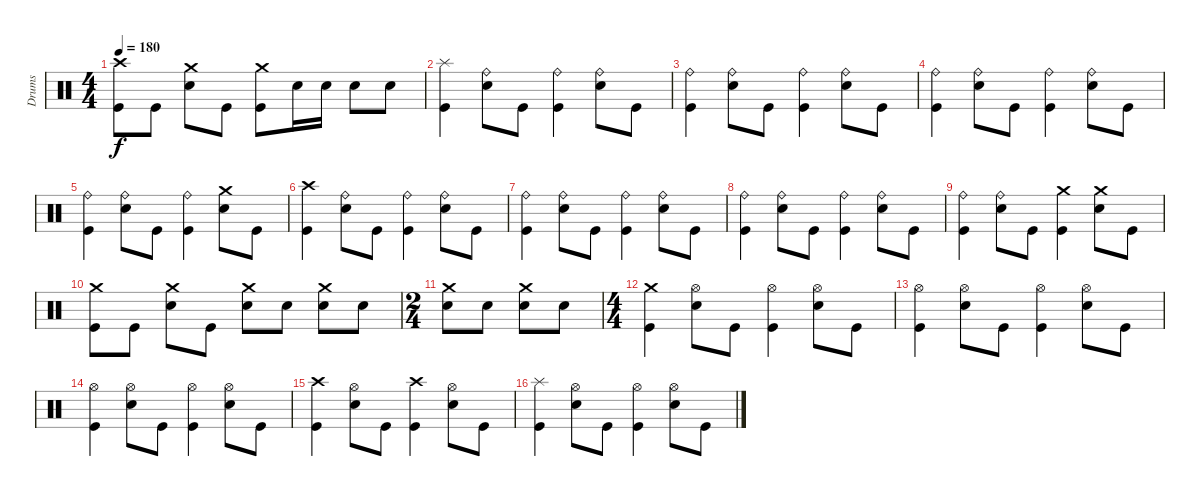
\track ("Drums" "Drums") {instrument percussion}
\staff {score}
\articulation defaults
\ts (4 4)
\tempo 180
\clef neutral
\ks c
("Crash high (hit)" "Kick (hit)").8{dy f} "Kick (hit)".8 ("Crash medium (hit)" "Snare (hit) 2").8 "Kick (hit)".8 ("Crash medium (hit)" "Kick (hit)").8 "Snare (hit) 2".16 "Snare (hit) 2".16 "Snare (hit) 2".8 "Snare (hit) 2".8 |
("Splash (hit)" "Kick (hit)").4 ("Ride (bell)" "Snare (hit) 2").8 "Kick (hit)".8 ("Ride (bell)" "Kick (hit)").4 ("Ride (bell)" "Snare (hit) 2").8 "Kick (hit)".8 |
("Ride (bell)" "Kick (hit)").4 ("Ride (bell)" "Snare (hit) 2").8 "Kick (hit)".8 ("Ride (bell)" "Kick (hit)").4 ("Ride (bell)" "Snare (hit) 2").8 "Kick (hit)".8 |
("Ride (bell)" "Kick (hit)").4 ("Ride (bell)" "Snare (hit) 2").8 "Kick (hit)".8 ("Ride (bell)" "Kick (hit)").4 ("Ride (bell)" "Snare (hit) 2").8 "Kick (hit)".8 |
("Ride (bell)" "Kick (hit)").4 ("Ride (bell)" "Snare (hit) 2").8 "Kick (hit)".8 ("Ride (bell)" "Kick (hit)").4 ("Crash medium (hit)" "Snare (hit) 2").8 "Kick (hit)".8 |
("Crash high (hit)" "Kick (hit)").4 ("Ride (bell)" "Snare (hit) 2").8 "Kick (hit)".8 ("Ride (bell)" "Kick (hit)").4 ("Ride (bell)" "Snare (hit) 2").8 "Kick (hit)".8 |
("Ride (bell)" "Kick (hit)").4 ("Ride (bell)" "Snare (hit) 2").8 "Kick (hit)".8 ("Ride (bell)" "Kick (hit)").4 ("Ride (bell)" "Snare (hit) 2").8 "Kick (hit)".8 |
("Ride (bell)" "Kick (hit)").4 ("Ride (bell)" "Snare (hit) 2").8 "Kick (hit)".8 ("Ride (bell)" "Kick (hit)").4 ("Ride (bell)" "Snare (hit) 2").8 "Kick (hit)".8 |
("Ride (bell)" "Kick (hit)").4 ("Ride (bell)" "Snare (hit) 2").8 "Kick (hit)".8 ("Crash medium (hit)" "Kick (hit)").4 ("Crash medium (hit)" "Snare (hit) 2").8 "Kick (hit)".8 |
("Crash medium (hit)" "Kick (hit)").8 "Kick (hit)".8 ("Crash medium (hit)" "Snare (hit) 2").8 "Kick (hit)".8 ("Crash medium (hit)" "Snare (hit) 2").8 "Snare (hit) 2".8 ("Crash medium (hit)" "Snare (hit) 2").8 "Snare (hit) 2".8 |
\ts (2 4)
("Crash medium (hit)" "Snare (hit) 2").8 "Snare (hit) 2".8 ("Crash medium (hit)" "Snare (hit) 2").8 "Snare (hit) 2".8 |
\ts (4 4)
("Crash medium (hit)" "Kick (hit)").4 ("Hi-Hat (open)" "Electric Snare (hit)").8 "Kick (hit)".8 ("Hi-Hat (open)" "Kick (hit)").4 ("Hi-Hat (open)" "Electric Snare (hit)").8 "Kick (hit)".8 |
("Hi-Hat (open)" "Kick (hit)").4 ("Hi-Hat (open)" "Electric Snare (hit)").8 "Kick (hit)".8 ("Hi-Hat (open)" "Kick (hit)").4 ("Hi-Hat (open)" "Electric Snare (hit)").8 "Kick (hit)".8 |
("Hi-Hat (open)" "Kick (hit)").4 ("Hi-Hat (open)" "Electric Snare (hit)").8 "Kick (hit)".8 ("Hi-Hat (open)" "Kick (hit)").4 ("Hi-Hat (open)" "Electric Snare (hit)").8 "Kick (hit)".8 |
("Crash high (hit)" "Kick (hit)").4 ("Hi-Hat (open)" "Electric Snare (hit)").8 "Kick (hit)".8 ("Crash high (hit)" "Kick (hit)").4 ("Hi-Hat (open)" "Electric Snare (hit)").8 "Kick (hit)".8 |
("Splash (hit)" "Kick (hit)").4 ("Hi-Hat (open)" "Electric Snare (hit)").8 "Kick (hit)".8 ("Hi-Hat (open)" "Kick (hit)").4 ("Hi-Hat (open)" "Electric Snare (hit)").8 "Kick (hit)".8
